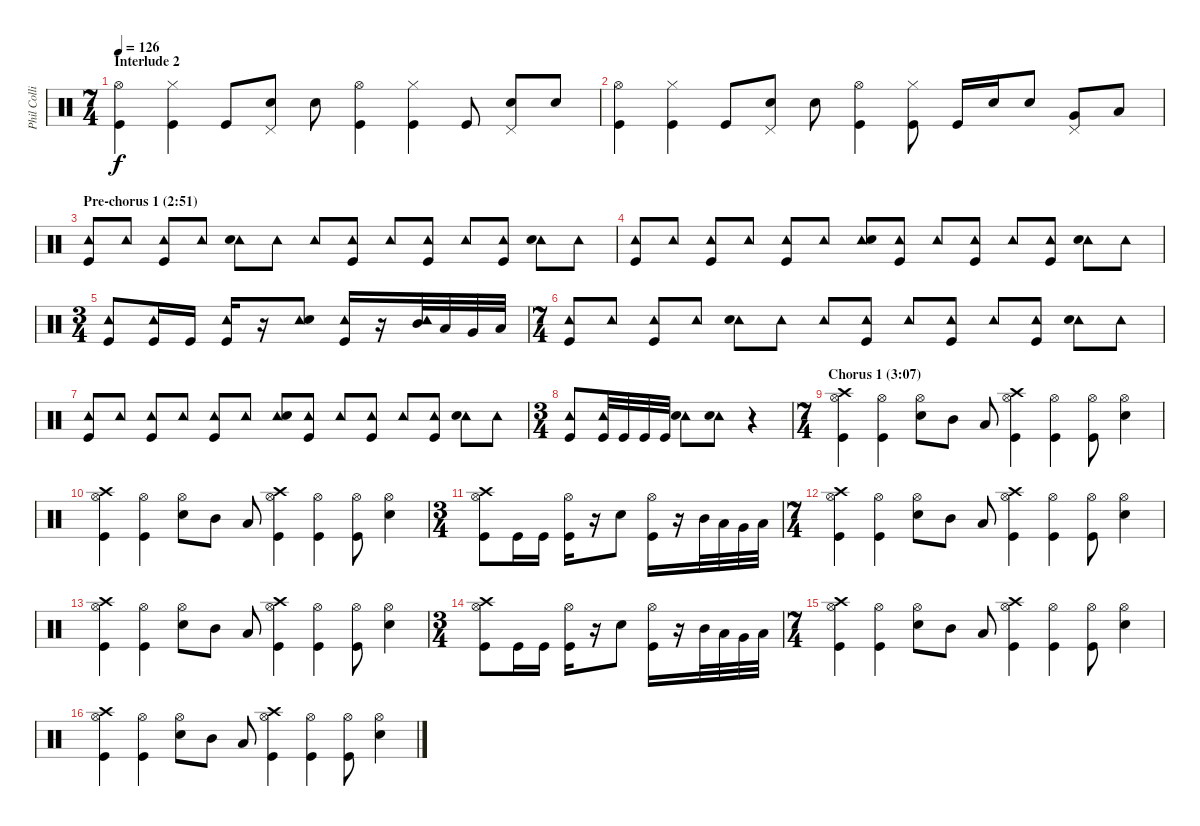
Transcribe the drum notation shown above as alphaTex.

\track ("Phil Collins (drums)" "Phil Colli") {instrument percussion}
\staff {score}
\articulation defaults
\ts (7 4)
\section ("" "Interlude 2")
\tempo 126
\clef neutral
\ks c
("Hi-Hat (open)" "Kick (hit)").4{dy f} ("Hi-Hat (closed)" "Kick (hit)").4 "Kick (hit)".8 ("Pedal Hi-Hat (hit)" "Snare (hit) 2").8 "Snare (hit) 2".8 ("Hi-Hat (open)" "Kick (hit)").4 ("Hi-Hat (closed)" "Kick (hit)").4 "Kick (hit)".8 ("Pedal Hi-Hat (hit)" "Snare (hit) 2").8 "Snare (hit) 2".8 |
("Hi-Hat (open)" "Kick (hit)").4 ("Hi-Hat (closed)" "Kick (hit)").4 "Kick (hit)".8 ("Pedal Hi-Hat (hit)" "Snare (hit) 2").8 "Snare (hit) 2".8 ("Hi-Hat (open)" "Kick (hit)").4 ("Hi-Hat (closed)" "Kick (hit)").8 "Kick (hit)".16 "Snare (hit) 2".16 "Snare (hit) 2".8 ("Pedal Hi-Hat (hit)" "Very Low Tom (hit)").8 "Low Floor Tom (hit)".8 |
\section ("" "Pre-chorus 1 (2:51)")
("Tambourine (hit)" "Kick (hit)").8 "Tambourine (hit)".8 ("Tambourine (hit)" "Kick (hit)").8 "Tambourine (hit)".8 ("Tambourine (hit)" "Snare (hit) 2").8 "Tambourine (hit)".8 "Tambourine (hit)".8 ("Tambourine (hit)" "Kick (hit)").8 "Tambourine (hit)".8 ("Tambourine (hit)" "Kick (hit)").8 "Tambourine (hit)".8 ("Tambourine (hit)" "Kick (hit)").8 ("Tambourine (hit)" "Snare (hit) 2").8 "Tambourine (hit)".8 |
("Tambourine (hit)" "Kick (hit)").8 "Tambourine (hit)".8 ("Tambourine (hit)" "Kick (hit)").8 "Tambourine (hit)".8 ("Tambourine (hit)" "Kick (hit)").8 "Tambourine (hit)".8 ("Tambourine (hit)" "Snare (hit) 2").8 ("Tambourine (hit)" "Kick (hit)").8 "Tambourine (hit)".8 ("Tambourine (hit)" "Kick (hit)").8 "Tambourine (hit)".8 ("Tambourine (hit)" "Kick (hit)").8 ("Tambourine (hit)" "Snare (hit) 2").8 "Tambourine (hit)".8 |
\ts (3 4)
("Tambourine (hit)" "Kick (hit)").8 ("Tambourine (hit)" "Kick (hit)").16 "Kick (hit)".16 ("Tambourine (hit)" "Kick (hit)").16 r.16 ("Tambourine (hit)" "Snare (hit) 2").8 ("Tambourine (hit)" "Kick (hit)").16 r.16 ("Tambourine (hit)" "Mid Tom (hit)").32 "Low Tom (hit)".32 "Very Low Tom (hit)".32 "Low Floor Tom (hit)".32 |
\ts (7 4)
("Tambourine (hit)" "Kick (hit)").8 "Tambourine (hit)".8 ("Tambourine (hit)" "Kick (hit)").8 "Tambourine (hit)".8 ("Tambourine (hit)" "Snare (hit) 2").8 "Tambourine (hit)".8 "Tambourine (hit)".8 ("Tambourine (hit)" "Kick (hit)").8 "Tambourine (hit)".8 ("Tambourine (hit)" "Kick (hit)").8 "Tambourine (hit)".8 ("Tambourine (hit)" "Kick (hit)").8 ("Tambourine (hit)" "Snare (hit) 2").8 "Tambourine (hit)".8 |
("Tambourine (hit)" "Kick (hit)").8 "Tambourine (hit)".8 ("Tambourine (hit)" "Kick (hit)").8 "Tambourine (hit)".8 ("Tambourine (hit)" "Kick (hit)").8 "Tambourine (hit)".8 ("Tambourine (hit)" "Snare (hit) 2").8 ("Tambourine (hit)" "Kick (hit)").8 "Tambourine (hit)".8 ("Tambourine (hit)" "Kick (hit)").8 "Tambourine (hit)".8 ("Tambourine (hit)" "Kick (hit)").8 ("Tambourine (hit)" "Snare (hit) 2").8 "Tambourine (hit)".8 |
\ts (3 4)
("Tambourine (hit)" "Kick (hit)").8 ("Tambourine (hit)" "Kick (hit)").32 "Kick (hit)".32 "Kick (hit)".32 "Kick (hit)".32 ("Tambourine (hit)" "Snare (hit) 2").8 ("Tambourine (hit)" "Snare (hit) 2").8 r.4 |
\ts (7 4)
\section ("" "Chorus 1 (3:07)")
("Crash high (hit)" "Hi-Hat (open)" "Kick (hit)").4 ("Hi-Hat (open)" "Kick (hit)").4 ("Hi-Hat (open)" "Snare (hit) 2").8 "Mid Tom (hit)".8 "Low Tom (hit)".8 ("Crash high (hit)" "Hi-Hat (open)" "Kick (hit)").4 ("Hi-Hat (open)" "Kick (hit)").4 ("Hi-Hat (open)" "Kick (hit)").8 ("Hi-Hat (open)" "Snare (hit) 2").4 |
("Crash high (hit)" "Hi-Hat (open)" "Kick (hit)").4 ("Hi-Hat (open)" "Kick (hit)").4 ("Hi-Hat (open)" "Snare (hit) 2").8 "Mid Tom (hit)".8 "Low Tom (hit)".8 ("Crash high (hit)" "Hi-Hat (open)" "Kick (hit)").4 ("Hi-Hat (open)" "Kick (hit)").4 ("Hi-Hat (open)" "Kick (hit)").8 ("Hi-Hat (open)" "Snare (hit) 2").4 |
\ts (3 4)
("Crash high (hit)" "Hi-Hat (open)" "Kick (hit)").8 "Kick (hit)".16 "Kick (hit)".16 ("Hi-Hat (open)" "Kick (hit)").16 r.16 "Snare (hit) 2".8 ("Hi-Hat (open)" "Kick (hit)").16 r.16 "Mid Tom (hit)".32 "Low Tom (hit)".32 "Very Low Tom (hit)".32 "Low Floor Tom (hit)".32 |
\ts (7 4)
("Crash high (hit)" "Hi-Hat (open)" "Kick (hit)").4 ("Hi-Hat (open)" "Kick (hit)").4 ("Hi-Hat (open)" "Snare (hit) 2").8 "Mid Tom (hit)".8 "Low Tom (hit)".8 ("Crash high (hit)" "Hi-Hat (open)" "Kick (hit)").4 ("Hi-Hat (open)" "Kick (hit)").4 ("Hi-Hat (open)" "Kick (hit)").8 ("Hi-Hat (open)" "Snare (hit) 2").4 |
("Crash high (hit)" "Hi-Hat (open)" "Kick (hit)").4 ("Hi-Hat (open)" "Kick (hit)").4 ("Hi-Hat (open)" "Snare (hit) 2").8 "Mid Tom (hit)".8 "Low Tom (hit)".8 ("Crash high (hit)" "Hi-Hat (open)" "Kick (hit)").4 ("Hi-Hat (open)" "Kick (hit)").4 ("Hi-Hat (open)" "Kick (hit)").8 ("Hi-Hat (open)" "Snare (hit) 2").4 |
\ts (3 4)
("Crash high (hit)" "Hi-Hat (open)" "Kick (hit)").8 "Kick (hit)".16 "Kick (hit)".16 ("Hi-Hat (open)" "Kick (hit)").16 r.16 "Snare (hit) 2".8 ("Hi-Hat (open)" "Kick (hit)").16 r.16 "Mid Tom (hit)".32 "Low Tom (hit)".32 "Very Low Tom (hit)".32 "Low Floor Tom (hit)".32 |
\ts (7 4)
("Crash high (hit)" "Hi-Hat (open)" "Kick (hit)").4 ("Hi-Hat (open)" "Kick (hit)").4 ("Hi-Hat (open)" "Snare (hit) 2").8 "Mid Tom (hit)".8 "Low Tom (hit)".8 ("Crash high (hit)" "Hi-Hat (open)" "Kick (hit)").4 ("Hi-Hat (open)" "Kick (hit)").4 ("Hi-Hat (open)" "Kick (hit)").8 ("Hi-Hat (open)" "Snare (hit) 2").4 |
("Crash high (hit)" "Hi-Hat (open)" "Kick (hit)").4 ("Hi-Hat (open)" "Kick (hit)").4 ("Hi-Hat (open)" "Snare (hit) 2").8 "Mid Tom (hit)".8 "Low Tom (hit)".8 ("Crash high (hit)" "Hi-Hat (open)" "Kick (hit)").4 ("Hi-Hat (open)" "Kick (hit)").4 ("Hi-Hat (open)" "Kick (hit)").8 ("Hi-Hat (open)" "Snare (hit) 2").4
